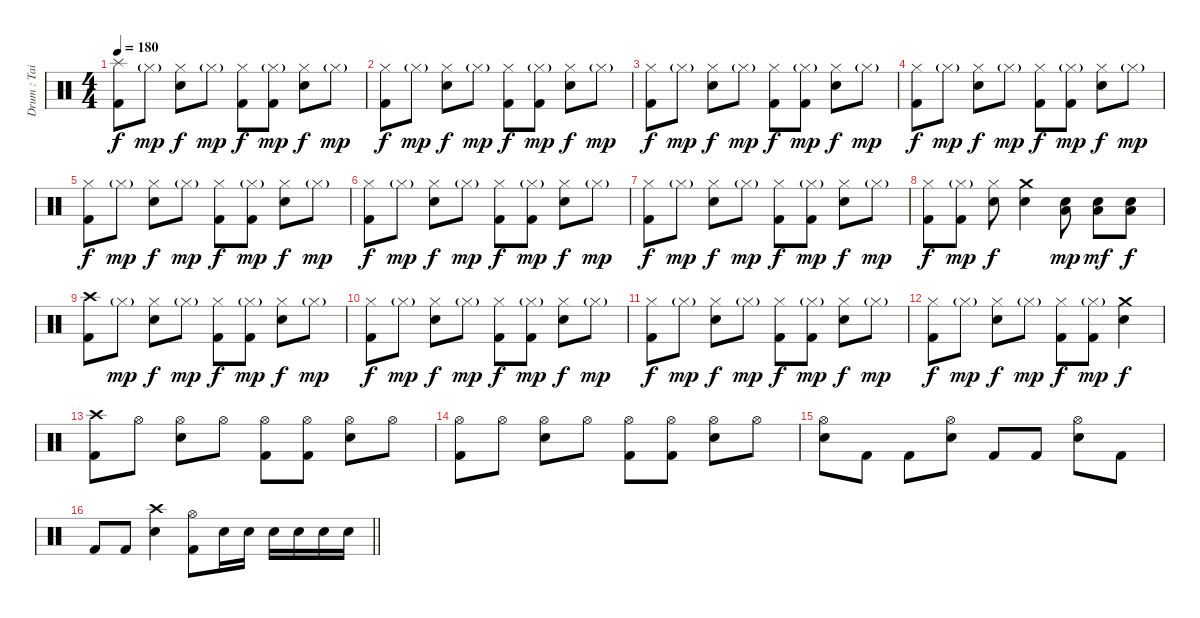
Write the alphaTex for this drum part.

\track ("Drum : Tainaka Ritsu - Chan" "Drum : Tai") {instrument percussion}
\staff {score}
\articulation defaults
\ts (4 4)
\tempo 180
\clef neutral
\ks c
("Splash (hit)" "Kick (hit) 2").8{dy f} "Hi-Hat (closed)"{g}.8{dy mp} ("Hi-Hat (closed)" "Electric Snare (hit)").8{dy f} "Hi-Hat (closed)"{g}.8{dy mp} ("Hi-Hat (closed)" "Kick (hit) 2").8{dy f} ("Hi-Hat (closed)"{g} "Kick (hit) 2").8{dy mp} ("Hi-Hat (closed)" "Electric Snare (hit)").8{dy f} "Hi-Hat (closed)"{g}.8{dy mp} |
("Hi-Hat (closed)" "Kick (hit) 2").8{dy f} "Hi-Hat (closed)"{g}.8{dy mp} ("Hi-Hat (closed)" "Electric Snare (hit)").8{dy f} "Hi-Hat (closed)"{g}.8{dy mp} ("Hi-Hat (closed)" "Kick (hit) 2").8{dy f} ("Hi-Hat (closed)"{g} "Kick (hit) 2").8{dy mp} ("Hi-Hat (closed)" "Electric Snare (hit)").8{dy f} "Hi-Hat (closed)"{g}.8{dy mp} |
("Hi-Hat (closed)" "Kick (hit) 2").8{dy f} "Hi-Hat (closed)"{g}.8{dy mp} ("Hi-Hat (closed)" "Electric Snare (hit)").8{dy f} "Hi-Hat (closed)"{g}.8{dy mp} ("Hi-Hat (closed)" "Kick (hit) 2").8{dy f} ("Hi-Hat (closed)"{g} "Kick (hit) 2").8{dy mp} ("Hi-Hat (closed)" "Electric Snare (hit)").8{dy f} "Hi-Hat (closed)"{g}.8{dy mp} |
("Hi-Hat (closed)" "Kick (hit) 2").8{dy f} "Hi-Hat (closed)"{g}.8{dy mp} ("Hi-Hat (closed)" "Electric Snare (hit)").8{dy f} "Hi-Hat (closed)"{g}.8{dy mp} ("Hi-Hat (closed)" "Kick (hit) 2").8{dy f} ("Hi-Hat (closed)"{g} "Kick (hit) 2").8{dy mp} ("Hi-Hat (closed)" "Electric Snare (hit)").8{dy f} "Hi-Hat (closed)"{g}.8{dy mp} |
("Hi-Hat (closed)" "Kick (hit) 2").8{dy f} "Hi-Hat (closed)"{g}.8{dy mp} ("Hi-Hat (closed)" "Electric Snare (hit)").8{dy f} "Hi-Hat (closed)"{g}.8{dy mp} ("Hi-Hat (closed)" "Kick (hit) 2").8{dy f} ("Hi-Hat (closed)"{g} "Kick (hit) 2").8{dy mp} ("Hi-Hat (closed)" "Electric Snare (hit)").8{dy f} "Hi-Hat (closed)"{g}.8{dy mp} |
("Hi-Hat (closed)" "Kick (hit) 2").8{dy f} "Hi-Hat (closed)"{g}.8{dy mp} ("Hi-Hat (closed)" "Electric Snare (hit)").8{dy f} "Hi-Hat (closed)"{g}.8{dy mp} ("Hi-Hat (closed)" "Kick (hit) 2").8{dy f} ("Hi-Hat (closed)"{g} "Kick (hit) 2").8{dy mp} ("Hi-Hat (closed)" "Electric Snare (hit)").8{dy f} "Hi-Hat (closed)"{g}.8{dy mp} |
("Hi-Hat (closed)" "Kick (hit) 2").8{dy f} "Hi-Hat (closed)"{g}.8{dy mp} ("Hi-Hat (closed)" "Electric Snare (hit)").8{dy f} "Hi-Hat (closed)"{g}.8{dy mp} ("Hi-Hat (closed)" "Kick (hit) 2").8{dy f} ("Hi-Hat (closed)"{g} "Kick (hit) 2").8{dy mp} ("Hi-Hat (closed)" "Electric Snare (hit)").8{dy f} "Hi-Hat (closed)"{g}.8{dy mp} |
("Hi-Hat (closed)" "Kick (hit) 2").8{dy f} ("Hi-Hat (closed)"{g} "Kick (hit) 2").8{dy mp} ("Hi-Hat (closed)" "Electric Snare (hit)").8{dy f} ("Crash medium (hit)" "Electric Snare (hit)").4 ("Electric Snare (hit)" "Low Floor Tom (hit)").8{dy mp} ("Electric Snare (hit)" "Low Floor Tom (hit)").8{dy mf} ("Electric Snare (hit)" "Low Floor Tom (hit)").8{dy f} |
("Crash high (hit)" "Kick (hit) 2").8 "Hi-Hat (closed)"{g}.8{dy mp} ("Hi-Hat (closed)" "Electric Snare (hit)").8{dy f} "Hi-Hat (closed)"{g}.8{dy mp} ("Hi-Hat (closed)" "Kick (hit) 2").8{dy f} ("Hi-Hat (closed)"{g} "Kick (hit) 2").8{dy mp} ("Hi-Hat (closed)" "Electric Snare (hit)").8{dy f} "Hi-Hat (closed)"{g}.8{dy mp} |
("Hi-Hat (closed)" "Kick (hit) 2").8{dy f} "Hi-Hat (closed)"{g}.8{dy mp} ("Hi-Hat (closed)" "Electric Snare (hit)").8{dy f} "Hi-Hat (closed)"{g}.8{dy mp} ("Hi-Hat (closed)" "Kick (hit) 2").8{dy f} ("Hi-Hat (closed)"{g} "Kick (hit) 2").8{dy mp} ("Hi-Hat (closed)" "Electric Snare (hit)").8{dy f} "Hi-Hat (closed)"{g}.8{dy mp} |
("Hi-Hat (closed)" "Kick (hit) 2").8{dy f} "Hi-Hat (closed)"{g}.8{dy mp} ("Hi-Hat (closed)" "Electric Snare (hit)").8{dy f} "Hi-Hat (closed)"{g}.8{dy mp} ("Hi-Hat (closed)" "Kick (hit) 2").8{dy f} ("Hi-Hat (closed)"{g} "Kick (hit) 2").8{dy mp} ("Hi-Hat (closed)" "Electric Snare (hit)").8{dy f} "Hi-Hat (closed)"{g}.8{dy mp} |
("Hi-Hat (closed)" "Kick (hit) 2").8{dy f} "Hi-Hat (closed)"{g}.8{dy mp} ("Hi-Hat (closed)" "Electric Snare (hit)").8{dy f} "Hi-Hat (closed)"{g}.8{dy mp} ("Hi-Hat (closed)" "Kick (hit) 2").8{dy f} ("Hi-Hat (closed)"{g} "Kick (hit) 2").8{dy mp} ("Crash medium (hit)" "Electric Snare (hit)").4{dy f} |
("Crash high (hit)" "Kick (hit) 2").8 "Hi-Hat (open)".8 ("Hi-Hat (open)" "Electric Snare (hit)").8 "Hi-Hat (open)".8 ("Hi-Hat (open)" "Kick (hit) 2").8 ("Hi-Hat (open)" "Kick (hit) 2").8 ("Hi-Hat (open)" "Electric Snare (hit)").8 "Hi-Hat (open)".8 |
("Hi-Hat (open)" "Kick (hit) 2").8 "Hi-Hat (open)".8 ("Hi-Hat (open)" "Electric Snare (hit)").8 "Hi-Hat (open)".8 ("Hi-Hat (open)" "Kick (hit) 2").8 ("Hi-Hat (open)" "Kick (hit) 2").8 ("Hi-Hat (open)" "Electric Snare (hit)").8 "Hi-Hat (open)".8 |
("Hi-Hat (open)" "Electric Snare (hit)").8 "Kick (hit) 2".8 "Kick (hit) 2".8 ("Hi-Hat (open)" "Electric Snare (hit)").8 "Kick (hit) 2".8 "Kick (hit) 2".8 ("Hi-Hat (open)" "Electric Snare (hit)").8 "Kick (hit) 2".8 |
\barLineRight lightlight "Kick (hit) 2".8 "Kick (hit) 2".8
("Crash high (hit)" "Electric Snare (hit)").4 ("Hi-Hat (open)" "Kick (hit) 2").8 "Electric Snare (hit)".16 "Electric Snare (hit)".16 "Electric Snare (hit)".16 "Electric Snare (hit)".16 "Electric Snare (hit)".16 "Electric Snare (hit)".16
